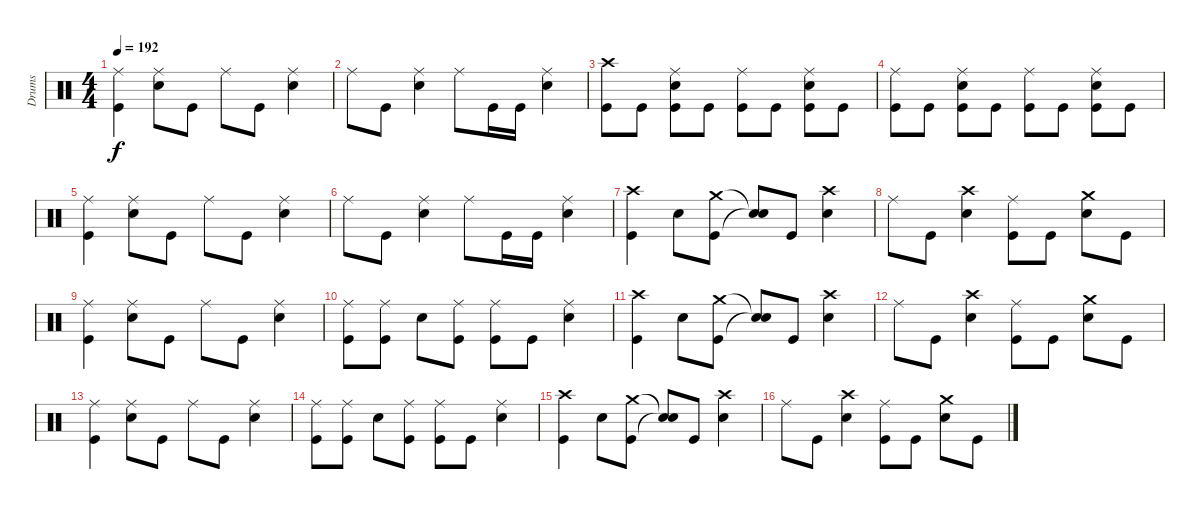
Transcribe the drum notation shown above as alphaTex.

\track ("Drums" "Drums") {instrument percussion}
\staff {score}
\articulation defaults
\ts (4 4)
\tempo 192
\clef neutral
\ks c
("Ride (middle)" "Kick (hit)").4{dy f} ("Ride (middle)" "Electric Snare (hit)").8 "Kick (hit)".8 "Ride (middle)".8 "Kick (hit)".8 ("Ride (middle)" "Electric Snare (hit)").4 |
"Ride (middle)".8 "Kick (hit)".8 ("Ride (middle)" "Electric Snare (hit)").4 "Ride (middle)".8 "Kick (hit)".16 "Kick (hit)".16 ("Ride (middle)" "Electric Snare (hit)").4 |
("Crash high (hit)" "Kick (hit)").8 "Kick (hit)".8 ("Ride (middle)" "Electric Snare (hit)" "Kick (hit)").8 "Kick (hit)".8 ("Ride (middle)" "Kick (hit)").8 "Kick (hit)".8 ("Ride (middle)" "Electric Snare (hit)" "Kick (hit)").8 "Kick (hit)".8 |
("Ride (middle)" "Kick (hit)").8 "Kick (hit)".8 ("Ride (middle)" "Electric Snare (hit)" "Kick (hit)").8 "Kick (hit)".8 ("Ride (middle)" "Kick (hit)").8 "Kick (hit)".8 ("Ride (middle)" "Electric Snare (hit)" "Kick (hit)").8 "Kick (hit)".8 |
("Ride (middle)" "Kick (hit)").4 ("Ride (middle)" "Electric Snare (hit)").8 "Kick (hit)".8 "Ride (middle)".8 "Kick (hit)".8 ("Ride (middle)" "Electric Snare (hit)").4 |
"Ride (middle)".8 "Kick (hit)".8 ("Ride (middle)" "Electric Snare (hit)").4 "Ride (middle)".8 "Kick (hit)".16 "Kick (hit)".16 ("Ride (middle)" "Electric Snare (hit)").4 |
("Crash high (hit)" "Kick (hit)").4 "Electric Snare (hit)".8 ("Crash medium (hit)" "Kick (hit)").8 ("Snare (hit)"{t} "Snare (hit)"{t}).8 "Kick (hit)".8 ("Crash high (hit)" "Electric Snare (hit)").4 |
"Ride (middle)".8 "Kick (hit)".8 ("Crash high (hit)" "Electric Snare (hit)").4 ("Ride (middle)" "Kick (hit)").8 "Kick (hit)".8 ("Crash medium (hit)" "Electric Snare (hit)").8 "Kick (hit)".8 |
("Ride (middle)" "Kick (hit)").4 ("Ride (middle)" "Electric Snare (hit)").8 "Kick (hit)".8 "Ride (middle)".8 "Kick (hit)".8 ("Ride (middle)" "Electric Snare (hit)").4 |
("Ride (middle)" "Kick (hit)").8 ("Ride (middle)" "Kick (hit)").8 "Electric Snare (hit)".8 ("Ride (middle)" "Kick (hit)").8 ("Ride (middle)" "Kick (hit)").8 "Kick (hit)".8 ("Ride (middle)" "Electric Snare (hit)").4 |
("Crash high (hit)" "Kick (hit)").4 "Electric Snare (hit)".8 ("Crash medium (hit)" "Kick (hit)").8 ("Snare (hit)"{t} "Snare (hit)"{t}).8 "Kick (hit)".8 ("Crash high (hit)" "Electric Snare (hit)").4 |
"Ride (middle)".8 "Kick (hit)".8 ("Crash high (hit)" "Electric Snare (hit)").4 ("Ride (middle)" "Kick (hit)").8 "Kick (hit)".8 ("Crash medium (hit)" "Electric Snare (hit)").8 "Kick (hit)".8 |
("Ride (middle)" "Kick (hit)").4 ("Ride (middle)" "Electric Snare (hit)").8 "Kick (hit)".8 "Ride (middle)".8 "Kick (hit)".8 ("Ride (middle)" "Electric Snare (hit)").4 |
("Ride (middle)" "Kick (hit)").8 ("Ride (middle)" "Kick (hit)").8 "Electric Snare (hit)".8 ("Ride (middle)" "Kick (hit)").8 ("Ride (middle)" "Kick (hit)").8 "Kick (hit)".8 ("Ride (middle)" "Electric Snare (hit)").4 |
("Crash high (hit)" "Kick (hit)").4 "Electric Snare (hit)".8 ("Crash medium (hit)" "Kick (hit)").8 ("Snare (hit)"{t} "Snare (hit)"{t}).8 "Kick (hit)".8 ("Crash high (hit)" "Electric Snare (hit)").4 |
"Ride (middle)".8 "Kick (hit)".8 ("Crash high (hit)" "Electric Snare (hit)").4 ("Ride (middle)" "Kick (hit)").8 "Kick (hit)".8 ("Crash medium (hit)" "Electric Snare (hit)").8 "Kick (hit)".8
